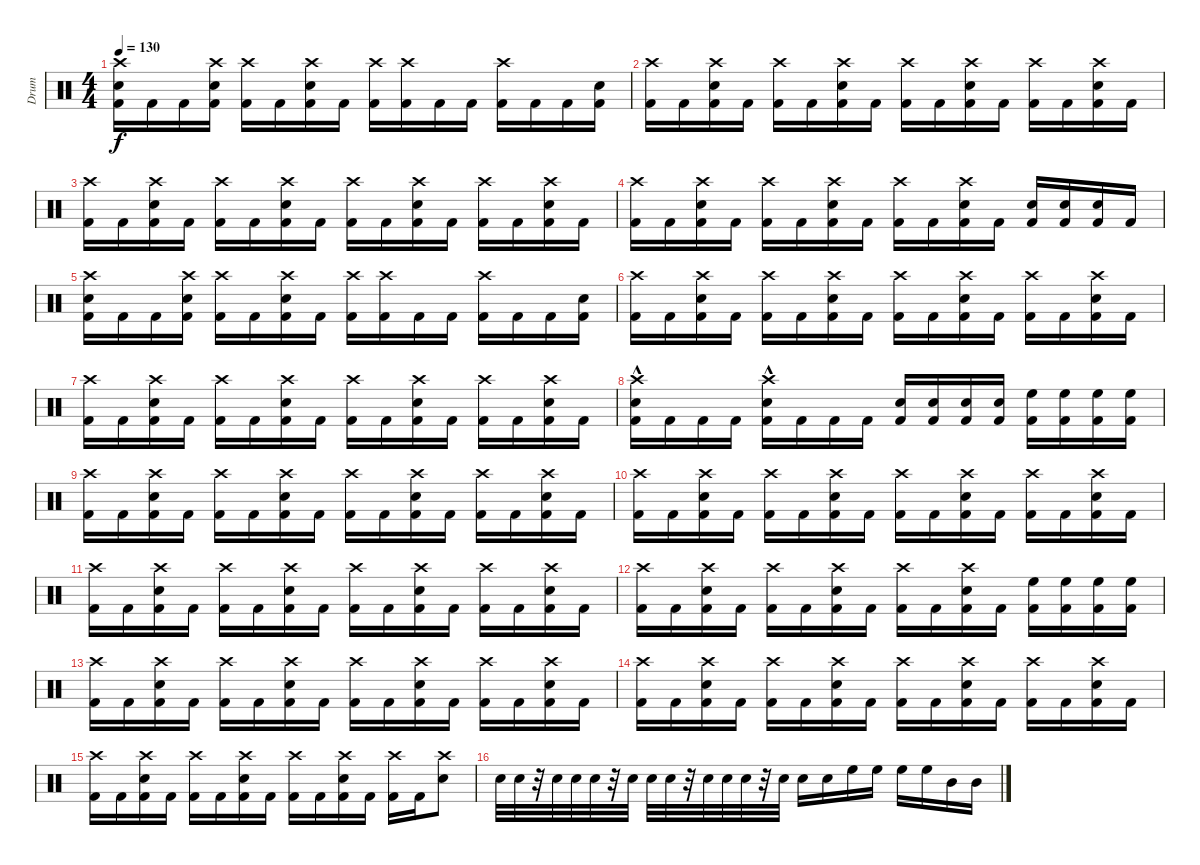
\track ("Drum" "Drum") {instrument percussion}
\staff {score}
\articulation defaults
\ts (4 4)
\tempo 130
\clef neutral
\ks c
("Kick (hit) 2" "Snare (hit) 2" "Crash high (hit)").16{dy f} "Kick (hit) 2".16 "Kick (hit) 2".16 ("Kick (hit) 2" "Crash high (hit)" "Snare (hit) 2").16 ("Kick (hit) 2" "Crash high (hit)").16 "Kick (hit) 2".16 ("Kick (hit) 2" "Crash high (hit)" "Snare (hit) 2").16 "Kick (hit) 2".16 ("Kick (hit) 2" "Crash high (hit)").16 ("Kick (hit) 2" "Crash high (hit)").16 "Kick (hit) 2".16 "Kick (hit) 2".16 ("Kick (hit) 2" "Crash high (hit)").16 "Kick (hit) 2".16 "Kick (hit) 2".16 ("Kick (hit) 2" "Snare (hit) 2").16 |
("Kick (hit) 2" "Crash high (hit)").16 "Kick (hit) 2".16 ("Kick (hit) 2" "Crash high (hit)" "Snare (hit) 2").16 "Kick (hit) 2".16 ("Kick (hit) 2" "Crash high (hit)").16 "Kick (hit) 2".16 ("Kick (hit) 2" "Crash high (hit)" "Snare (hit) 2").16 "Kick (hit) 2".16 ("Kick (hit) 2" "Crash high (hit)").16 "Kick (hit) 2".16 ("Kick (hit) 2" "Crash high (hit)" "Snare (hit) 2").16 "Kick (hit) 2".16 ("Kick (hit) 2" "Crash high (hit)").16 "Kick (hit) 2".16 ("Kick (hit) 2" "Crash high (hit)" "Snare (hit) 2").16 "Kick (hit) 2".16 |
("Kick (hit) 2" "Crash high (hit)").16 "Kick (hit) 2".16 ("Kick (hit) 2" "Crash high (hit)" "Snare (hit) 2").16 "Kick (hit) 2".16 ("Kick (hit) 2" "Crash high (hit)").16 "Kick (hit) 2".16 ("Kick (hit) 2" "Crash high (hit)" "Snare (hit) 2").16 "Kick (hit) 2".16 ("Kick (hit) 2" "Crash high (hit)").16 "Kick (hit) 2".16 ("Kick (hit) 2" "Crash high (hit)" "Snare (hit) 2").16 "Kick (hit) 2".16 ("Kick (hit) 2" "Crash high (hit)").16 "Kick (hit) 2".16 ("Kick (hit) 2" "Crash high (hit)" "Snare (hit) 2").16 "Kick (hit) 2".16 |
("Kick (hit) 2" "Crash high (hit)").16 "Kick (hit) 2".16 ("Kick (hit) 2" "Crash high (hit)" "Snare (hit) 2").16 "Kick (hit) 2".16 ("Kick (hit) 2" "Crash high (hit)").16 "Kick (hit) 2".16 ("Kick (hit) 2" "Crash high (hit)" "Snare (hit) 2").16 "Kick (hit) 2".16 ("Kick (hit) 2" "Crash high (hit)").16 "Kick (hit) 2".16 ("Kick (hit) 2" "Crash high (hit)" "Snare (hit) 2").16 "Kick (hit) 2".16 ("Kick (hit) 2" "Snare (hit) 2").16 ("Kick (hit) 2" "Snare (hit) 2").16 ("Kick (hit) 2" "Snare (hit) 2").16 "Kick (hit) 2".16 |
("Kick (hit) 2" "Snare (hit) 2" "Crash high (hit)").16 "Kick (hit) 2".16 "Kick (hit) 2".16 ("Kick (hit) 2" "Crash high (hit)" "Snare (hit) 2").16 ("Kick (hit) 2" "Crash high (hit)").16 "Kick (hit) 2".16 ("Kick (hit) 2" "Crash high (hit)" "Snare (hit) 2").16 "Kick (hit) 2".16 ("Kick (hit) 2" "Crash high (hit)").16 ("Kick (hit) 2" "Crash high (hit)").16 "Kick (hit) 2".16 "Kick (hit) 2".16 ("Kick (hit) 2" "Crash high (hit)").16 "Kick (hit) 2".16 "Kick (hit) 2".16 ("Kick (hit) 2" "Snare (hit) 2").16 |
("Kick (hit) 2" "Crash high (hit)").16 "Kick (hit) 2".16 ("Kick (hit) 2" "Crash high (hit)" "Snare (hit) 2").16 "Kick (hit) 2".16 ("Kick (hit) 2" "Crash high (hit)").16 "Kick (hit) 2".16 ("Kick (hit) 2" "Crash high (hit)" "Snare (hit) 2").16 "Kick (hit) 2".16 ("Kick (hit) 2" "Crash high (hit)").16 "Kick (hit) 2".16 ("Kick (hit) 2" "Crash high (hit)" "Snare (hit) 2").16 "Kick (hit) 2".16 ("Kick (hit) 2" "Crash high (hit)").16 "Kick (hit) 2".16 ("Kick (hit) 2" "Crash high (hit)" "Snare (hit) 2").16 "Kick (hit) 2".16 |
("Kick (hit) 2" "Crash high (hit)").16 "Kick (hit) 2".16 ("Kick (hit) 2" "Crash high (hit)" "Snare (hit) 2").16 "Kick (hit) 2".16 ("Kick (hit) 2" "Crash high (hit)").16 "Kick (hit) 2".16 ("Kick (hit) 2" "Crash high (hit)" "Snare (hit) 2").16 "Kick (hit) 2".16 ("Kick (hit) 2" "Crash high (hit)").16 "Kick (hit) 2".16 ("Kick (hit) 2" "Crash high (hit)" "Snare (hit) 2").16 "Kick (hit) 2".16 ("Kick (hit) 2" "Crash high (hit)").16 "Kick (hit) 2".16 ("Kick (hit) 2" "Crash high (hit)" "Snare (hit) 2").16 "Kick (hit) 2".16 |
("Kick (hit) 2" "Crash high (hit)"{hac} "Snare (hit) 2"{hac}).16 "Kick (hit) 2".16 "Kick (hit) 2".16 "Kick (hit) 2".16 ("Kick (hit) 2" "Crash high (hit)"{hac} "Snare (hit) 2"{hac}).16 "Kick (hit) 2".16 "Kick (hit) 2".16 "Kick (hit) 2".16 ("Kick (hit) 2" "Snare (hit) 2").16 ("Kick (hit) 2" "Snare (hit) 2").16 ("Kick (hit) 2" "Snare (hit) 2").16 ("Kick (hit) 2" "Snare (hit) 2").16 ("Kick (hit) 2" "High Floor Tom (hit)").16 ("Kick (hit) 2" "High Floor Tom (hit)").16 ("Kick (hit) 2" "High Floor Tom (hit)").16 ("Kick (hit) 2" "High Floor Tom (hit)").16 |
("Kick (hit) 2" "Crash high (hit)").16 "Kick (hit) 2".16 ("Kick (hit) 2" "Crash high (hit)" "Snare (hit) 2").16 "Kick (hit) 2".16 ("Kick (hit) 2" "Crash high (hit)").16 "Kick (hit) 2".16 ("Kick (hit) 2" "Crash high (hit)" "Snare (hit) 2").16 "Kick (hit) 2".16 ("Kick (hit) 2" "Crash high (hit)").16 "Kick (hit) 2".16 ("Kick (hit) 2" "Crash high (hit)" "Snare (hit) 2").16 "Kick (hit) 2".16 ("Kick (hit) 2" "Crash high (hit)").16 "Kick (hit) 2".16 ("Kick (hit) 2" "Crash high (hit)" "Snare (hit) 2").16 "Kick (hit) 2".16 |
("Kick (hit) 2" "Crash high (hit)").16 "Kick (hit) 2".16 ("Kick (hit) 2" "Crash high (hit)" "Snare (hit) 2").16 "Kick (hit) 2".16 ("Kick (hit) 2" "Crash high (hit)").16 "Kick (hit) 2".16 ("Kick (hit) 2" "Crash high (hit)" "Snare (hit) 2").16 "Kick (hit) 2".16 ("Kick (hit) 2" "Crash high (hit)").16 "Kick (hit) 2".16 ("Kick (hit) 2" "Crash high (hit)" "Snare (hit) 2").16 "Kick (hit) 2".16 ("Kick (hit) 2" "Crash high (hit)").16 "Kick (hit) 2".16 ("Kick (hit) 2" "Crash high (hit)" "Snare (hit) 2").16 "Kick (hit) 2".16 |
("Kick (hit) 2" "Crash high (hit)").16 "Kick (hit) 2".16 ("Kick (hit) 2" "Crash high (hit)" "Snare (hit) 2").16 "Kick (hit) 2".16 ("Kick (hit) 2" "Crash high (hit)").16 "Kick (hit) 2".16 ("Kick (hit) 2" "Crash high (hit)" "Snare (hit) 2").16 "Kick (hit) 2".16 ("Kick (hit) 2" "Crash high (hit)").16 "Kick (hit) 2".16 ("Kick (hit) 2" "Crash high (hit)" "Snare (hit) 2").16 "Kick (hit) 2".16 ("Kick (hit) 2" "Crash high (hit)").16 "Kick (hit) 2".16 ("Kick (hit) 2" "Crash high (hit)" "Snare (hit) 2").16 "Kick (hit) 2".16 |
("Kick (hit) 2" "Crash high (hit)").16 "Kick (hit) 2".16 ("Kick (hit) 2" "Crash high (hit)" "Snare (hit) 2").16 "Kick (hit) 2".16 ("Kick (hit) 2" "Crash high (hit)").16 "Kick (hit) 2".16 ("Kick (hit) 2" "Crash high (hit)" "Snare (hit) 2").16 "Kick (hit) 2".16 ("Kick (hit) 2" "Crash high (hit)").16 "Kick (hit) 2".16 ("Kick (hit) 2" "Crash high (hit)" "Snare (hit) 2").16 "Kick (hit) 2".16 ("Kick (hit) 2" "High Floor Tom (hit)").16 ("Kick (hit) 2" "High Floor Tom (hit)").16 ("Kick (hit) 2" "High Floor Tom (hit)").16 ("Kick (hit) 2" "High Floor Tom (hit)").16 |
("Kick (hit) 2" "Crash high (hit)").16 "Kick (hit) 2".16 ("Kick (hit) 2" "Crash high (hit)" "Snare (hit) 2").16 "Kick (hit) 2".16 ("Kick (hit) 2" "Crash high (hit)").16 "Kick (hit) 2".16 ("Kick (hit) 2" "Crash high (hit)" "Snare (hit) 2").16 "Kick (hit) 2".16 ("Kick (hit) 2" "Crash high (hit)").16 "Kick (hit) 2".16 ("Kick (hit) 2" "Crash high (hit)" "Snare (hit) 2").16 "Kick (hit) 2".16 ("Kick (hit) 2" "Crash high (hit)").16 "Kick (hit) 2".16 ("Kick (hit) 2" "Crash high (hit)" "Snare (hit) 2").16 "Kick (hit) 2".16 |
("Kick (hit) 2" "Crash high (hit)").16 "Kick (hit) 2".16 ("Kick (hit) 2" "Crash high (hit)" "Snare (hit) 2").16 "Kick (hit) 2".16 ("Kick (hit) 2" "Crash high (hit)").16 "Kick (hit) 2".16 ("Kick (hit) 2" "Crash high (hit)" "Snare (hit) 2").16 "Kick (hit) 2".16 ("Kick (hit) 2" "Crash high (hit)").16 "Kick (hit) 2".16 ("Kick (hit) 2" "Crash high (hit)" "Snare (hit) 2").16 "Kick (hit) 2".16 ("Kick (hit) 2" "Crash high (hit)").16 "Kick (hit) 2".16 ("Kick (hit) 2" "Crash high (hit)" "Snare (hit) 2").16 "Kick (hit) 2".16 |
("Kick (hit) 2" "Crash high (hit)").16 "Kick (hit) 2".16 ("Kick (hit) 2" "Crash high (hit)" "Snare (hit) 2").16 "Kick (hit) 2".16 ("Kick (hit) 2" "Crash high (hit)").16 "Kick (hit) 2".16 ("Kick (hit) 2" "Crash high (hit)" "Snare (hit) 2").16 "Kick (hit) 2".16 ("Kick (hit) 2" "Crash high (hit)").16 "Kick (hit) 2".16 ("Kick (hit) 2" "Crash high (hit)" "Snare (hit) 2").16 "Kick (hit) 2".16 ("Kick (hit) 2" "Crash high (hit)").16 "Kick (hit) 2".16 ("Crash high (hit)" "Snare (hit) 2").8 |
"Snare (hit) 2".32 "Snare (hit) 2".32 r.32 "Snare (hit) 2".32 "Snare (hit) 2".32 "Snare (hit) 2".32 r.32 "Snare (hit) 2".32 "Snare (hit) 2".32 "Snare (hit) 2".32 r.32 "Snare (hit) 2".32 "Snare (hit) 2".32 "Snare (hit) 2".32 r.32 "Snare (hit) 2".32 "Snare (hit) 2".16 "Snare (hit) 2".16 "High Floor Tom (hit)".16 "High Floor Tom (hit)".16 "High Floor Tom (hit)".16 "High Floor Tom (hit)".16 "Mid Tom (hit)".16 "Mid Tom (hit)".16
